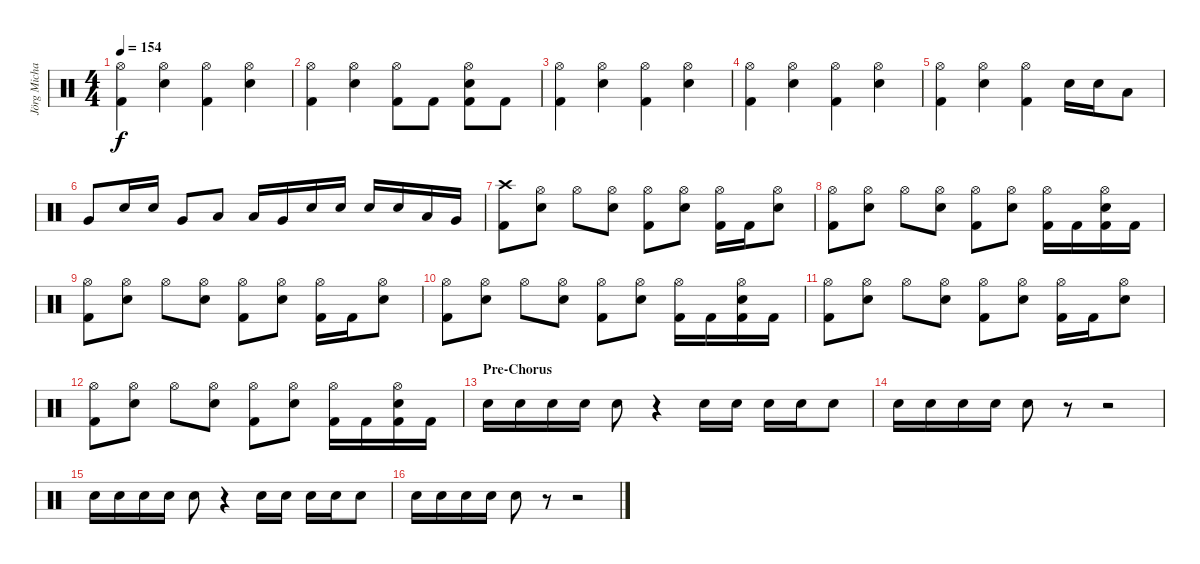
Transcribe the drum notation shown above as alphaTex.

\track ("Jörg Michael - Drums" "Jörg Micha") {instrument percussion}
\staff {score}
\articulation defaults
\ts (4 4)
\tempo 154
\clef neutral
\ks c
("Hi-Hat (open)" "Kick (hit) 2").4{dy f} ("Hi-Hat (open)" "Electric Snare (hit)").4 ("Hi-Hat (open)" "Kick (hit) 2").4 ("Hi-Hat (open)" "Electric Snare (hit)").4 |
("Hi-Hat (open)" "Kick (hit) 2").4 ("Hi-Hat (open)" "Electric Snare (hit)").4 ("Hi-Hat (open)" "Kick (hit) 2").8 "Kick (hit) 2".8 ("Hi-Hat (open)" "Electric Snare (hit)" "Kick (hit) 2").8 "Kick (hit) 2".8 |
("Hi-Hat (open)" "Kick (hit) 2").4 ("Hi-Hat (open)" "Electric Snare (hit)").4 ("Hi-Hat (open)" "Kick (hit) 2").4 ("Hi-Hat (open)" "Electric Snare (hit)").4 |
("Hi-Hat (open)" "Kick (hit) 2").4 ("Hi-Hat (open)" "Electric Snare (hit)").4 ("Hi-Hat (open)" "Kick (hit) 2").4 ("Hi-Hat (open)" "Electric Snare (hit)").4 |
("Hi-Hat (open)" "Kick (hit) 2").4 ("Hi-Hat (open)" "Electric Snare (hit)").4 ("Hi-Hat (open)" "Kick (hit) 2").4 "Electric Snare (hit)".16 "Electric Snare (hit)".16 "Low Tom (hit)".8 |
"Very Low Tom (hit)".8 "Electric Snare (hit)".16 "Electric Snare (hit)".16 "Very Low Tom (hit)".8 "Low Floor Tom (hit)".8 "Low Tom (hit)".16 "Very Low Tom (hit)".16 "Electric Snare (hit)".16 "Electric Snare (hit)".16 "Electric Snare (hit)".16 "Electric Snare (hit)".16 "Low Tom (hit)".16 "Very Low Tom (hit)".16 |
("Crash high (hit)" "Kick (hit) 2").8 ("Hi-Hat (open)" "Electric Snare (hit)").8 "Hi-Hat (open)".8 ("Hi-Hat (open)" "Electric Snare (hit)").8 ("Hi-Hat (open)" "Kick (hit) 2").8 ("Hi-Hat (open)" "Electric Snare (hit)").8 ("Hi-Hat (open)" "Kick (hit) 2").16 "Kick (hit) 2".16 ("Hi-Hat (open)" "Electric Snare (hit)").8 |
("Hi-Hat (open)" "Kick (hit) 2").8 ("Hi-Hat (open)" "Electric Snare (hit)").8 "Hi-Hat (open)".8 ("Hi-Hat (open)" "Electric Snare (hit)").8 ("Hi-Hat (open)" "Kick (hit) 2").8 ("Hi-Hat (open)" "Electric Snare (hit)").8 ("Hi-Hat (open)" "Kick (hit) 2").16 "Kick (hit) 2".16 ("Hi-Hat (open)" "Electric Snare (hit)" "Kick (hit) 2").16 "Kick (hit) 2".16 |
("Hi-Hat (open)" "Kick (hit) 2").8 ("Hi-Hat (open)" "Electric Snare (hit)").8 "Hi-Hat (open)".8 ("Hi-Hat (open)" "Electric Snare (hit)").8 ("Hi-Hat (open)" "Kick (hit) 2").8 ("Hi-Hat (open)" "Electric Snare (hit)").8 ("Hi-Hat (open)" "Kick (hit) 2").16 "Kick (hit) 2".16 ("Hi-Hat (open)" "Electric Snare (hit)").8 |
("Hi-Hat (open)" "Kick (hit) 2").8 ("Hi-Hat (open)" "Electric Snare (hit)").8 "Hi-Hat (open)".8 ("Hi-Hat (open)" "Electric Snare (hit)").8 ("Hi-Hat (open)" "Kick (hit) 2").8 ("Hi-Hat (open)" "Electric Snare (hit)").8 ("Hi-Hat (open)" "Kick (hit) 2").16 "Kick (hit) 2".16 ("Hi-Hat (open)" "Electric Snare (hit)" "Kick (hit) 2").16 "Kick (hit) 2".16 |
("Hi-Hat (open)" "Kick (hit) 2").8 ("Hi-Hat (open)" "Electric Snare (hit)").8 "Hi-Hat (open)".8 ("Hi-Hat (open)" "Electric Snare (hit)").8 ("Hi-Hat (open)" "Kick (hit) 2").8 ("Hi-Hat (open)" "Electric Snare (hit)").8 ("Hi-Hat (open)" "Kick (hit) 2").16 "Kick (hit) 2".16 ("Hi-Hat (open)" "Electric Snare (hit)").8 |
("Hi-Hat (open)" "Kick (hit) 2").8 ("Hi-Hat (open)" "Electric Snare (hit)").8 "Hi-Hat (open)".8 ("Hi-Hat (open)" "Electric Snare (hit)").8 ("Hi-Hat (open)" "Kick (hit) 2").8 ("Hi-Hat (open)" "Electric Snare (hit)").8 ("Hi-Hat (open)" "Kick (hit) 2").16 "Kick (hit) 2".16 ("Hi-Hat (open)" "Electric Snare (hit)" "Kick (hit) 2").16 "Kick (hit) 2".16 |
\section ("" "Pre-Chorus")
"Electric Snare (hit)".16 "Electric Snare (hit)".16 "Electric Snare (hit)".16 "Electric Snare (hit)".16 "Electric Snare (hit)".8 r.4 "Electric Snare (hit)".16 "Electric Snare (hit)".16 "Electric Snare (hit)".16 "Electric Snare (hit)".16 "Electric Snare (hit)".8 |
"Electric Snare (hit)".16 "Electric Snare (hit)".16 "Electric Snare (hit)".16 "Electric Snare (hit)".16 "Electric Snare (hit)".8 r.8 r.2 |
"Electric Snare (hit)".16 "Electric Snare (hit)".16 "Electric Snare (hit)".16 "Electric Snare (hit)".16 "Electric Snare (hit)".8 r.4 "Electric Snare (hit)".16 "Electric Snare (hit)".16 "Electric Snare (hit)".16 "Electric Snare (hit)".16 "Electric Snare (hit)".8 |
"Electric Snare (hit)".16 "Electric Snare (hit)".16 "Electric Snare (hit)".16 "Electric Snare (hit)".16 "Electric Snare (hit)".8 r.8 r.2
